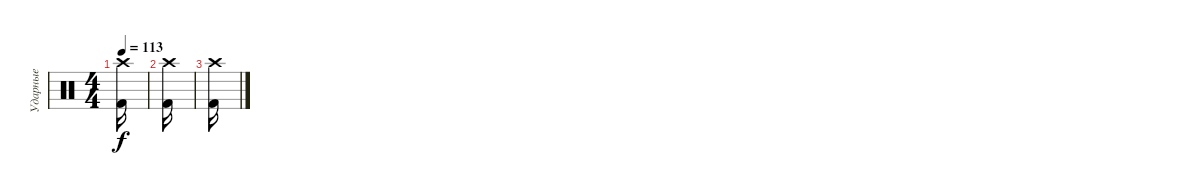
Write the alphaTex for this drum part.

\track ("Ударные" "Ударные") {instrument percussion}
\staff {score}
\articulation defaults
\ts (4 4)
\tempo 113
\clef neutral
\ks c
("Crash high (hit)" "Kick (hit) 2").16{dy f} |
("Crash high (hit)" "Kick (hit) 2").16 |
("Crash high (hit)" "Kick (hit) 2").16
